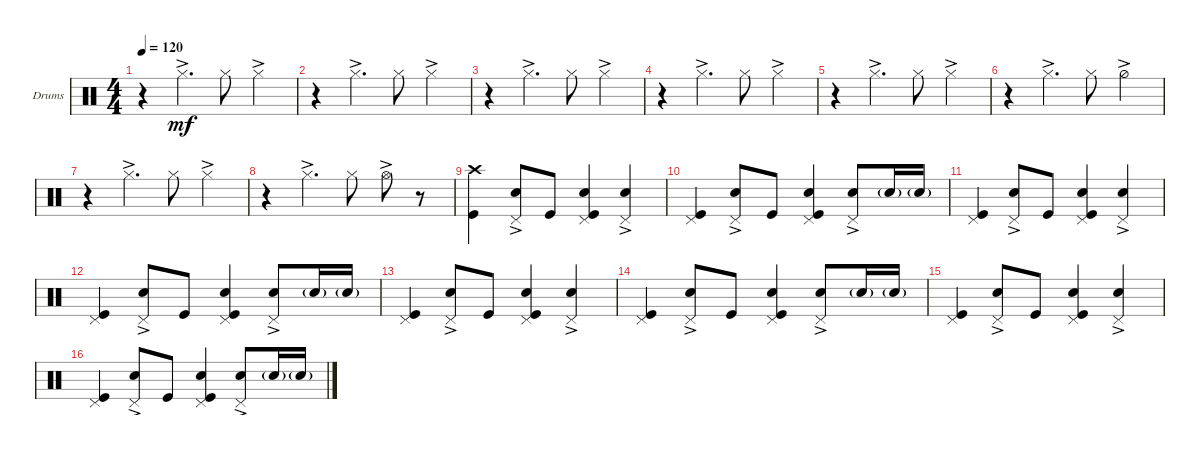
\defaultSystemsLayout 4
\bracketExtendMode groupsimilarinstruments
\firstSystemTrackNameOrientation horizontal
\otherSystemsTrackNameOrientation horizontal
\track ("Drumkit" "Drums") {instrument percussion}
\staff {score}
\articulation defaults
\ts (4 4)
\tempo 120
\clef neutral
\ks c
r.4{dy mf} "Hi-Hat (closed)"{ac}.4{d} "Hi-Hat (closed)".8 "Hi-Hat (closed)"{ac}.4 |
r.4 "Hi-Hat (closed)"{ac}.4{d} "Hi-Hat (closed)".8 "Hi-Hat (closed)"{ac}.4 |
r.4 "Hi-Hat (closed)"{ac}.4{d} "Hi-Hat (closed)".8 "Hi-Hat (closed)"{ac}.4 |
r.4 "Hi-Hat (closed)"{ac}.4{d} "Hi-Hat (closed)".8 "Hi-Hat (closed)"{ac}.4 |
r.4 "Hi-Hat (closed)"{ac}.4{d} "Hi-Hat (closed)".8 "Hi-Hat (closed)"{ac}.4 |
r.4 "Hi-Hat (closed)"{ac}.4{d} "Hi-Hat (closed)".8 "Hi-Hat (half)"{ac}.4 |
r.4 "Hi-Hat (closed)"{ac}.4{d} "Hi-Hat (closed)".8 "Hi-Hat (closed)"{ac}.4 |
r.4 "Hi-Hat (closed)"{ac}.4{d} "Hi-Hat (closed)".8 "Hi-Hat (open)"{ac}.8 r.8 |
("Crash high (hit)" "Kick (hit)").4 ("Snare (hit) 2"{ac} "Pedal Hi-Hat (hit)").8 "Kick (hit)".8 ("Snare (hit) 2" "Kick (hit)" "Pedal Hi-Hat (hit)").4 ("Snare (hit) 2"{ac} "Pedal Hi-Hat (hit)"{ac}).4 |
("Kick (hit)" "Pedal Hi-Hat (hit)").4 ("Snare (hit) 2"{ac} "Pedal Hi-Hat (hit)").8 "Kick (hit)".8 ("Snare (hit) 2" "Kick (hit)" "Pedal Hi-Hat (hit)").4 ("Snare (hit) 2"{ac} "Pedal Hi-Hat (hit)").8 "Snare (hit) 2"{g}.16 "Snare (hit) 2"{g}.16 |
("Kick (hit)" "Pedal Hi-Hat (hit)").4 ("Snare (hit) 2"{ac} "Pedal Hi-Hat (hit)").8 "Kick (hit)".8 ("Snare (hit) 2" "Kick (hit)" "Pedal Hi-Hat (hit)").4 ("Snare (hit) 2"{ac} "Pedal Hi-Hat (hit)").4 |
("Kick (hit)" "Pedal Hi-Hat (hit)").4 ("Snare (hit) 2"{ac} "Pedal Hi-Hat (hit)").8 "Kick (hit)".8 ("Snare (hit) 2" "Kick (hit)" "Pedal Hi-Hat (hit)").4 ("Snare (hit) 2"{ac} "Pedal Hi-Hat (hit)").8 "Snare (hit) 2"{g}.16 "Snare (hit) 2"{g}.16 |
("Kick (hit)" "Pedal Hi-Hat (hit)").4 ("Snare (hit) 2"{ac} "Pedal Hi-Hat (hit)").8 "Kick (hit)".8 ("Snare (hit) 2" "Kick (hit)" "Pedal Hi-Hat (hit)").4 ("Snare (hit) 2"{ac} "Pedal Hi-Hat (hit)").4 |
("Kick (hit)" "Pedal Hi-Hat (hit)").4 ("Snare (hit) 2"{ac} "Pedal Hi-Hat (hit)").8 "Kick (hit)".8 ("Snare (hit) 2" "Kick (hit)" "Pedal Hi-Hat (hit)").4 ("Snare (hit) 2"{ac} "Pedal Hi-Hat (hit)").8 "Snare (hit) 2"{g}.16 "Snare (hit) 2"{g}.16 |
("Kick (hit)" "Pedal Hi-Hat (hit)").4 ("Snare (hit) 2"{ac} "Pedal Hi-Hat (hit)").8 "Kick (hit)".8 ("Snare (hit) 2" "Kick (hit)" "Pedal Hi-Hat (hit)").4 ("Snare (hit) 2"{ac} "Pedal Hi-Hat (hit)").4 |
("Kick (hit)" "Pedal Hi-Hat (hit)").4 ("Snare (hit) 2"{ac} "Pedal Hi-Hat (hit)").8 "Kick (hit)".8 ("Snare (hit) 2" "Kick (hit)" "Pedal Hi-Hat (hit)").4 ("Snare (hit) 2"{ac} "Pedal Hi-Hat (hit)"{ac}).8 "Snare (hit) 2"{g}.16 "Snare (hit) 2"{g}.16
